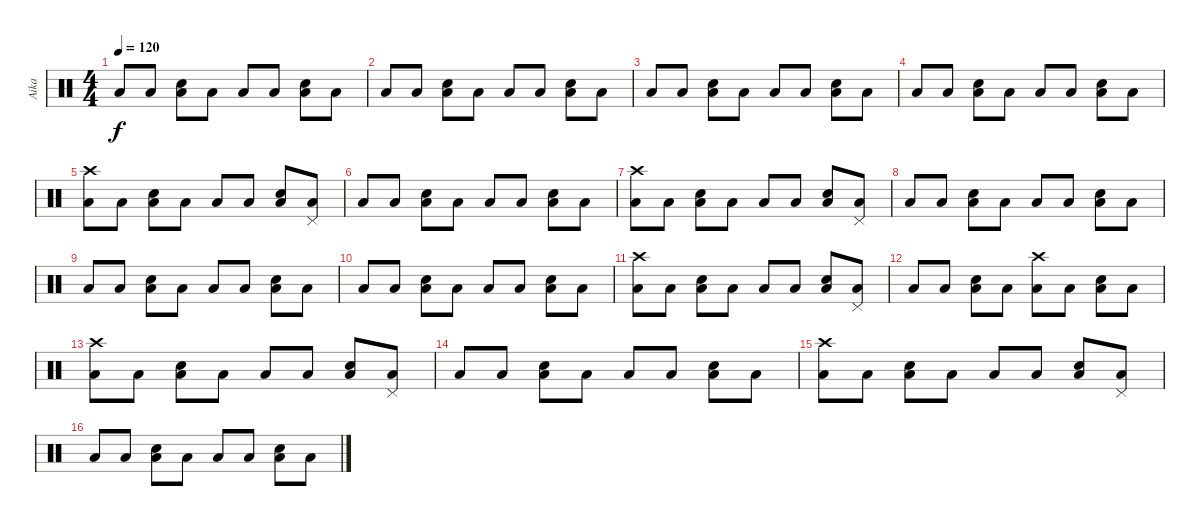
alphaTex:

\track ("Aika" "Aika") {instrument percussion}
\staff {score}
\articulation defaults
\ts (4 4)
\tempo 120
\clef neutral
\ks c "Low Floor Tom (hit)".8{dy f} "Low Floor Tom (hit)".8
("Low Floor Tom (hit)" "Snare (hit) 2").8 "Low Floor Tom (hit)".8 "Low Floor Tom (hit)".8 "Low Floor Tom (hit)".8 ("Low Floor Tom (hit)" "Snare (hit) 2").8 "Low Floor Tom (hit)".8 |
"Low Floor Tom (hit)".8 "Low Floor Tom (hit)".8 ("Low Floor Tom (hit)" "Snare (hit) 2").8 "Low Floor Tom (hit)".8 "Low Floor Tom (hit)".8 "Low Floor Tom (hit)".8 ("Low Floor Tom (hit)" "Snare (hit) 2").8 "Low Floor Tom (hit)".8 |
"Low Floor Tom (hit)".8 "Low Floor Tom (hit)".8 ("Low Floor Tom (hit)" "Snare (hit) 2").8 "Low Floor Tom (hit)".8 "Low Floor Tom (hit)".8 "Low Floor Tom (hit)".8 ("Low Floor Tom (hit)" "Snare (hit) 2").8 "Low Floor Tom (hit)".8 |
"Low Floor Tom (hit)".8 "Low Floor Tom (hit)".8 ("Low Floor Tom (hit)" "Snare (hit) 2").8 "Low Floor Tom (hit)".8 "Low Floor Tom (hit)".8 "Low Floor Tom (hit)".8 ("Low Floor Tom (hit)" "Snare (hit) 2").8 "Low Floor Tom (hit)".8 |
("Crash high (hit)" "Low Floor Tom (hit)").8 "Low Floor Tom (hit)".8 ("Low Floor Tom (hit)" "Snare (hit) 2").8 "Low Floor Tom (hit)".8 "Low Floor Tom (hit)".8 "Low Floor Tom (hit)".8 ("Low Floor Tom (hit)" "Snare (hit) 2").8 ("Pedal Hi-Hat (hit)" "Low Floor Tom (hit)").8 |
"Low Floor Tom (hit)".8 "Low Floor Tom (hit)".8 ("Low Floor Tom (hit)" "Snare (hit) 2").8 "Low Floor Tom (hit)".8 "Low Floor Tom (hit)".8 "Low Floor Tom (hit)".8 ("Low Floor Tom (hit)" "Snare (hit) 2").8 "Low Floor Tom (hit)".8 |
("Crash high (hit)" "Low Floor Tom (hit)").8 "Low Floor Tom (hit)".8 ("Low Floor Tom (hit)" "Snare (hit) 2").8 "Low Floor Tom (hit)".8 "Low Floor Tom (hit)".8 "Low Floor Tom (hit)".8 ("Low Floor Tom (hit)" "Snare (hit) 2").8 ("Pedal Hi-Hat (hit)" "Low Floor Tom (hit)").8 |
"Low Floor Tom (hit)".8 "Low Floor Tom (hit)".8 ("Low Floor Tom (hit)" "Snare (hit) 2").8 "Low Floor Tom (hit)".8 "Low Floor Tom (hit)".8 "Low Floor Tom (hit)".8 ("Low Floor Tom (hit)" "Snare (hit) 2").8 "Low Floor Tom (hit)".8 |
"Low Floor Tom (hit)".8 "Low Floor Tom (hit)".8 ("Low Floor Tom (hit)" "Snare (hit) 2").8 "Low Floor Tom (hit)".8 "Low Floor Tom (hit)".8 "Low Floor Tom (hit)".8 ("Low Floor Tom (hit)" "Snare (hit) 2").8 "Low Floor Tom (hit)".8 |
"Low Floor Tom (hit)".8 "Low Floor Tom (hit)".8 ("Low Floor Tom (hit)" "Snare (hit) 2").8 "Low Floor Tom (hit)".8 "Low Floor Tom (hit)".8 "Low Floor Tom (hit)".8 ("Low Floor Tom (hit)" "Snare (hit) 2").8 "Low Floor Tom (hit)".8 |
("Crash high (hit)" "Low Floor Tom (hit)").8 "Low Floor Tom (hit)".8 ("Low Floor Tom (hit)" "Snare (hit) 2").8 "Low Floor Tom (hit)".8 "Low Floor Tom (hit)".8 "Low Floor Tom (hit)".8 ("Low Floor Tom (hit)" "Snare (hit) 2").8 ("Pedal Hi-Hat (hit)" "Low Floor Tom (hit)").8 |
"Low Floor Tom (hit)".8 "Low Floor Tom (hit)".8 ("Low Floor Tom (hit)" "Snare (hit) 2").8 "Low Floor Tom (hit)".8 ("Crash high (hit)" "Low Floor Tom (hit)").8 "Low Floor Tom (hit)".8 ("Low Floor Tom (hit)" "Snare (hit) 2").8 "Low Floor Tom (hit)".8 |
("Crash high (hit)" "Low Floor Tom (hit)").8 "Low Floor Tom (hit)".8 ("Low Floor Tom (hit)" "Snare (hit) 2").8 "Low Floor Tom (hit)".8 "Low Floor Tom (hit)".8 "Low Floor Tom (hit)".8 ("Low Floor Tom (hit)" "Snare (hit) 2").8 ("Pedal Hi-Hat (hit)" "Low Floor Tom (hit)").8 |
"Low Floor Tom (hit)".8 "Low Floor Tom (hit)".8 ("Low Floor Tom (hit)" "Snare (hit) 2").8 "Low Floor Tom (hit)".8 "Low Floor Tom (hit)".8 "Low Floor Tom (hit)".8 ("Low Floor Tom (hit)" "Snare (hit) 2").8 "Low Floor Tom (hit)".8 |
("Crash high (hit)" "Low Floor Tom (hit)").8 "Low Floor Tom (hit)".8 ("Low Floor Tom (hit)" "Snare (hit) 2").8 "Low Floor Tom (hit)".8 "Low Floor Tom (hit)".8 "Low Floor Tom (hit)".8 ("Low Floor Tom (hit)" "Snare (hit) 2").8 ("Pedal Hi-Hat (hit)" "Low Floor Tom (hit)").8 |
"Low Floor Tom (hit)".8 "Low Floor Tom (hit)".8 ("Low Floor Tom (hit)" "Snare (hit) 2").8 "Low Floor Tom (hit)".8 "Low Floor Tom (hit)".8 "Low Floor Tom (hit)".8 ("Low Floor Tom (hit)" "Snare (hit) 2").8 "Low Floor Tom (hit)".8
